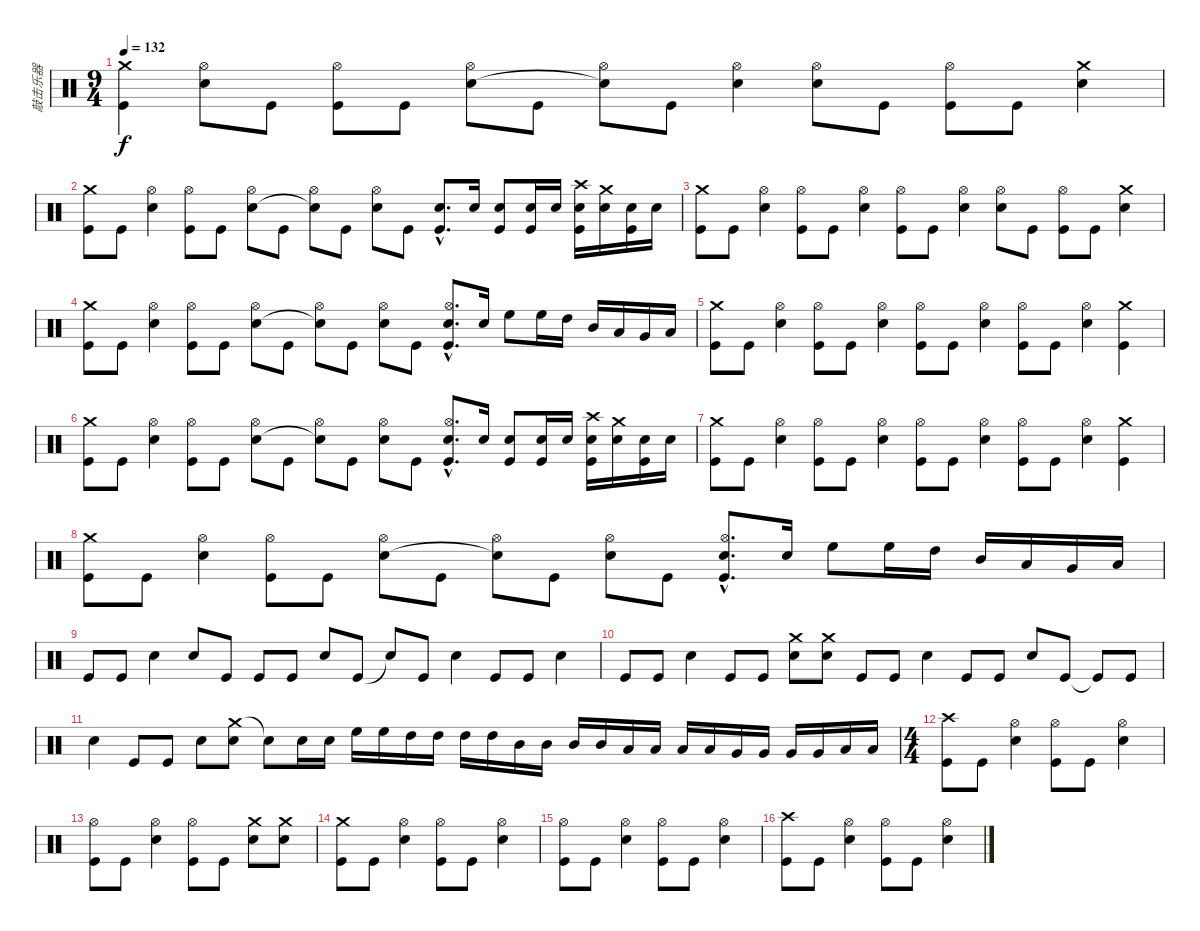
\track ("敲击乐器" "敲击乐器") {instrument percussion}
\staff {score}
\articulation defaults
\ts (9 4)
\tempo 132
\clef neutral
\ks c
("Crash medium (hit)" "Kick (hit)").4{dy f} ("Hi-Hat (open)" "Snare (hit) 2").8 "Kick (hit)".8 ("Hi-Hat (open)" "Kick (hit)").8 "Kick (hit)".8 ("Hi-Hat (open)" "Snare (hit) 2").8 "Kick (hit)".8 ("Hi-Hat (open)" "Snare (hit)"{t}).8 "Kick (hit)".8 ("Hi-Hat (open)" "Snare (hit) 2").4 ("Hi-Hat (open)" "Snare (hit) 2").8 "Kick (hit)".8 ("Hi-Hat (open)" "Kick (hit)").8 "Kick (hit)".8 ("Crash medium (hit)" "Snare (hit) 2").4 |
("Crash medium (hit)" "Kick (hit)").8 "Kick (hit)".8 ("Hi-Hat (open)" "Snare (hit) 2").4 ("Hi-Hat (open)" "Kick (hit)").8 "Kick (hit)".8 ("Hi-Hat (open)" "Snare (hit) 2").8 "Kick (hit)".8 ("Hi-Hat (open)" "Snare (hit)"{t}).8 "Kick (hit)".8 ("Hi-Hat (open)" "Snare (hit) 2").8 "Kick (hit)".8 ("Snare (hit) 2"{hac} "Kick (hit)"{hac}).8{d} "Snare (hit) 2".16 ("Snare (hit) 2" "Kick (hit)").8 ("Snare (hit) 2" "Kick (hit)").16 "Snare (hit) 2".16 ("Crash high (hit)" "Snare (hit) 2" "Kick (hit)").16 ("Crash medium (hit)" "Snare (hit) 2").16 ("Snare (hit) 2" "Kick (hit)").16 "Snare (hit) 2".16 |
("Crash medium (hit)" "Kick (hit)").8 "Kick (hit)".8 ("Hi-Hat (open)" "Snare (hit) 2").4 ("Hi-Hat (open)" "Kick (hit)").8 "Kick (hit)".8 ("Hi-Hat (open)" "Snare (hit) 2").4 ("Hi-Hat (open)" "Kick (hit)").8 "Kick (hit)".8 ("Hi-Hat (open)" "Snare (hit) 2").4 ("Hi-Hat (open)" "Snare (hit) 2").8 "Kick (hit)".8 ("Hi-Hat (open)" "Kick (hit)").8 "Kick (hit)".8 ("Crash medium (hit)" "Snare (hit) 2").4 |
("Crash medium (hit)" "Kick (hit)").8 "Kick (hit)".8 ("Hi-Hat (open)" "Snare (hit) 2").4 ("Hi-Hat (open)" "Kick (hit)").8 "Kick (hit)".8 ("Hi-Hat (open)" "Snare (hit) 2").8 "Kick (hit)".8 ("Hi-Hat (open)" "Snare (hit)"{t}).8 "Kick (hit)".8 ("Hi-Hat (open)" "Snare (hit) 2").8 "Kick (hit)".8 ("Hi-Hat (open)"{hac} "Snare (hit) 2"{hac} "Kick (hit)"{hac}).8{d} "Snare (hit) 2".16 "High Floor Tom (hit)".8 "High Floor Tom (hit)".16 "High Tom (hit)".16 "Mid Tom (hit)".16 "Low Tom (hit)".16 "Very Low Tom (hit)".16 "Low Floor Tom (hit)".16 |
("Crash medium (hit)" "Kick (hit)").8 "Kick (hit)".8 ("Hi-Hat (open)" "Snare (hit) 2").4 ("Hi-Hat (open)" "Kick (hit)").8 "Kick (hit)".8 ("Hi-Hat (open)" "Snare (hit) 2").4 ("Hi-Hat (open)" "Kick (hit)").8 "Kick (hit)".8 ("Hi-Hat (open)" "Snare (hit) 2").4 ("Hi-Hat (open)" "Kick (hit)").8 "Kick (hit)".8 ("Hi-Hat (open)" "Snare (hit) 2").4 ("Crash medium (hit)" "Kick (hit)").4 |
("Crash medium (hit)" "Kick (hit)").8 "Kick (hit)".8 ("Hi-Hat (open)" "Snare (hit) 2").4 ("Hi-Hat (open)" "Kick (hit)").8 "Kick (hit)".8 ("Hi-Hat (open)" "Snare (hit) 2").8 "Kick (hit)".8 ("Hi-Hat (open)" "Snare (hit)"{t}).8 "Kick (hit)".8 ("Hi-Hat (open)" "Snare (hit) 2").8 "Kick (hit)".8 ("Hi-Hat (open)"{hac} "Snare (hit) 2"{hac} "Kick (hit)"{hac}).8{d} "Snare (hit) 2".16 ("Snare (hit) 2" "Kick (hit)").8 ("Snare (hit) 2" "Kick (hit)").16 "Snare (hit) 2".16 ("Crash high (hit)" "Snare (hit) 2" "Kick (hit)").16 ("Crash medium (hit)" "Snare (hit) 2").16 ("Snare (hit) 2" "Kick (hit)").16 "Snare (hit) 2".16 |
("Crash medium (hit)" "Kick (hit)").8 "Kick (hit)".8 ("Hi-Hat (open)" "Snare (hit) 2").4 ("Hi-Hat (open)" "Kick (hit)").8 "Kick (hit)".8 ("Hi-Hat (open)" "Snare (hit) 2").4 ("Hi-Hat (open)" "Kick (hit)").8 "Kick (hit)".8 ("Hi-Hat (open)" "Snare (hit) 2").4 ("Hi-Hat (open)" "Kick (hit)").8 "Kick (hit)".8 ("Hi-Hat (open)" "Snare (hit) 2").4 ("Crash medium (hit)" "Kick (hit)").4 |
("Crash medium (hit)" "Kick (hit)").8 "Kick (hit)".8 ("Hi-Hat (open)" "Snare (hit) 2").4 ("Hi-Hat (open)" "Kick (hit)").8 "Kick (hit)".8 ("Hi-Hat (open)" "Snare (hit) 2").8 "Kick (hit)".8 ("Hi-Hat (open)" "Snare (hit)"{t}).8 "Kick (hit)".8 ("Hi-Hat (open)" "Snare (hit) 2").8 "Kick (hit)".8 ("Hi-Hat (open)"{hac} "Snare (hit) 2"{hac} "Kick (hit)"{hac}).8{d} "Snare (hit) 2".16 "High Floor Tom (hit)".8 "High Floor Tom (hit)".16 "High Tom (hit)".16 "Mid Tom (hit)".16 "Low Tom (hit)".16 "Very Low Tom (hit)".16 "Low Floor Tom (hit)".16 |
"Kick (hit)".8 "Kick (hit)".8 "Snare (hit) 2".4 "Snare (hit) 2".8 "Kick (hit)".8 "Kick (hit)".8 "Kick (hit)".8 "Snare (hit) 2".8 "Kick (hit)".8 "Snare (hit)"{t}.8 "Kick (hit)".8 "Snare (hit) 2".4 "Kick (hit)".8 "Kick (hit)".8 "Snare (hit) 2".4 |
"Kick (hit)".8 "Kick (hit)".8 "Snare (hit) 2".4 "Kick (hit)".8 "Kick (hit)".8 ("Crash medium (hit)" "Snare (hit) 2").8 ("Crash medium (hit)" "Snare (hit) 2").8 "Kick (hit)".8 "Kick (hit)".8 "Snare (hit) 2".4 "Kick (hit)".8 "Kick (hit)".8 "Snare (hit) 2".8 "Kick (hit)".8 "Kick (hit)"{t}.8 "Kick (hit)".8 |
"Snare (hit) 2".4 "Kick (hit)".8 "Kick (hit)".8 "Snare (hit) 2".8 ("Crash medium (hit)" "Snare (hit) 2").8 "Snare (hit)"{t}.8 "Snare (hit) 2".16 "Snare (hit) 2".16 "High Floor Tom (hit)".16 "High Floor Tom (hit)".16 "High Tom (hit)".16 "High Tom (hit)".16 "High Tom (hit)".16 "High Tom (hit)".16 "Mid Tom (hit)".16 "Mid Tom (hit)".16 "Mid Tom (hit)".16 "Mid Tom (hit)".16 "Low Tom (hit)".16 "Low Tom (hit)".16 "Low Tom (hit)".16 "Low Tom (hit)".16 "Very Low Tom (hit)".16 "Very Low Tom (hit)".16 "Very Low Tom (hit)".16 "Very Low Tom (hit)".16 "Low Floor Tom (hit)".16 "Low Floor Tom (hit)".16 |
\ts (4 4)
("Crash high (hit)" "Kick (hit)").8 "Kick (hit)".8 ("Hi-Hat (open)" "Snare (hit) 2").4 ("Hi-Hat (open)" "Kick (hit)").8 "Kick (hit)".8 ("Hi-Hat (open)" "Snare (hit) 2").4 |
("Hi-Hat (open)" "Kick (hit)").8 "Kick (hit)".8 ("Hi-Hat (open)" "Snare (hit) 2").4 ("Hi-Hat (open)" "Kick (hit)").8 "Kick (hit)".8 ("Crash medium (hit)" "Snare (hit) 2").8 ("Crash medium (hit)" "Snare (hit) 2").8 |
("Crash medium (hit)" "Kick (hit)").8 "Kick (hit)".8 ("Hi-Hat (open)" "Snare (hit) 2").4 ("Hi-Hat (open)" "Kick (hit)").8 "Kick (hit)".8 ("Hi-Hat (open)" "Snare (hit) 2").4 |
("Hi-Hat (open)" "Kick (hit)").8 "Kick (hit)".8 ("Hi-Hat (open)" "Snare (hit) 2").4 ("Hi-Hat (open)" "Kick (hit)").8 "Kick (hit)".8 ("Hi-Hat (open)" "Snare (hit) 2").4 |
("Crash high (hit)" "Kick (hit)").8 "Kick (hit)".8 ("Hi-Hat (open)" "Snare (hit) 2").4 ("Hi-Hat (open)" "Kick (hit)").8 "Kick (hit)".8 ("Hi-Hat (open)" "Snare (hit) 2").4
